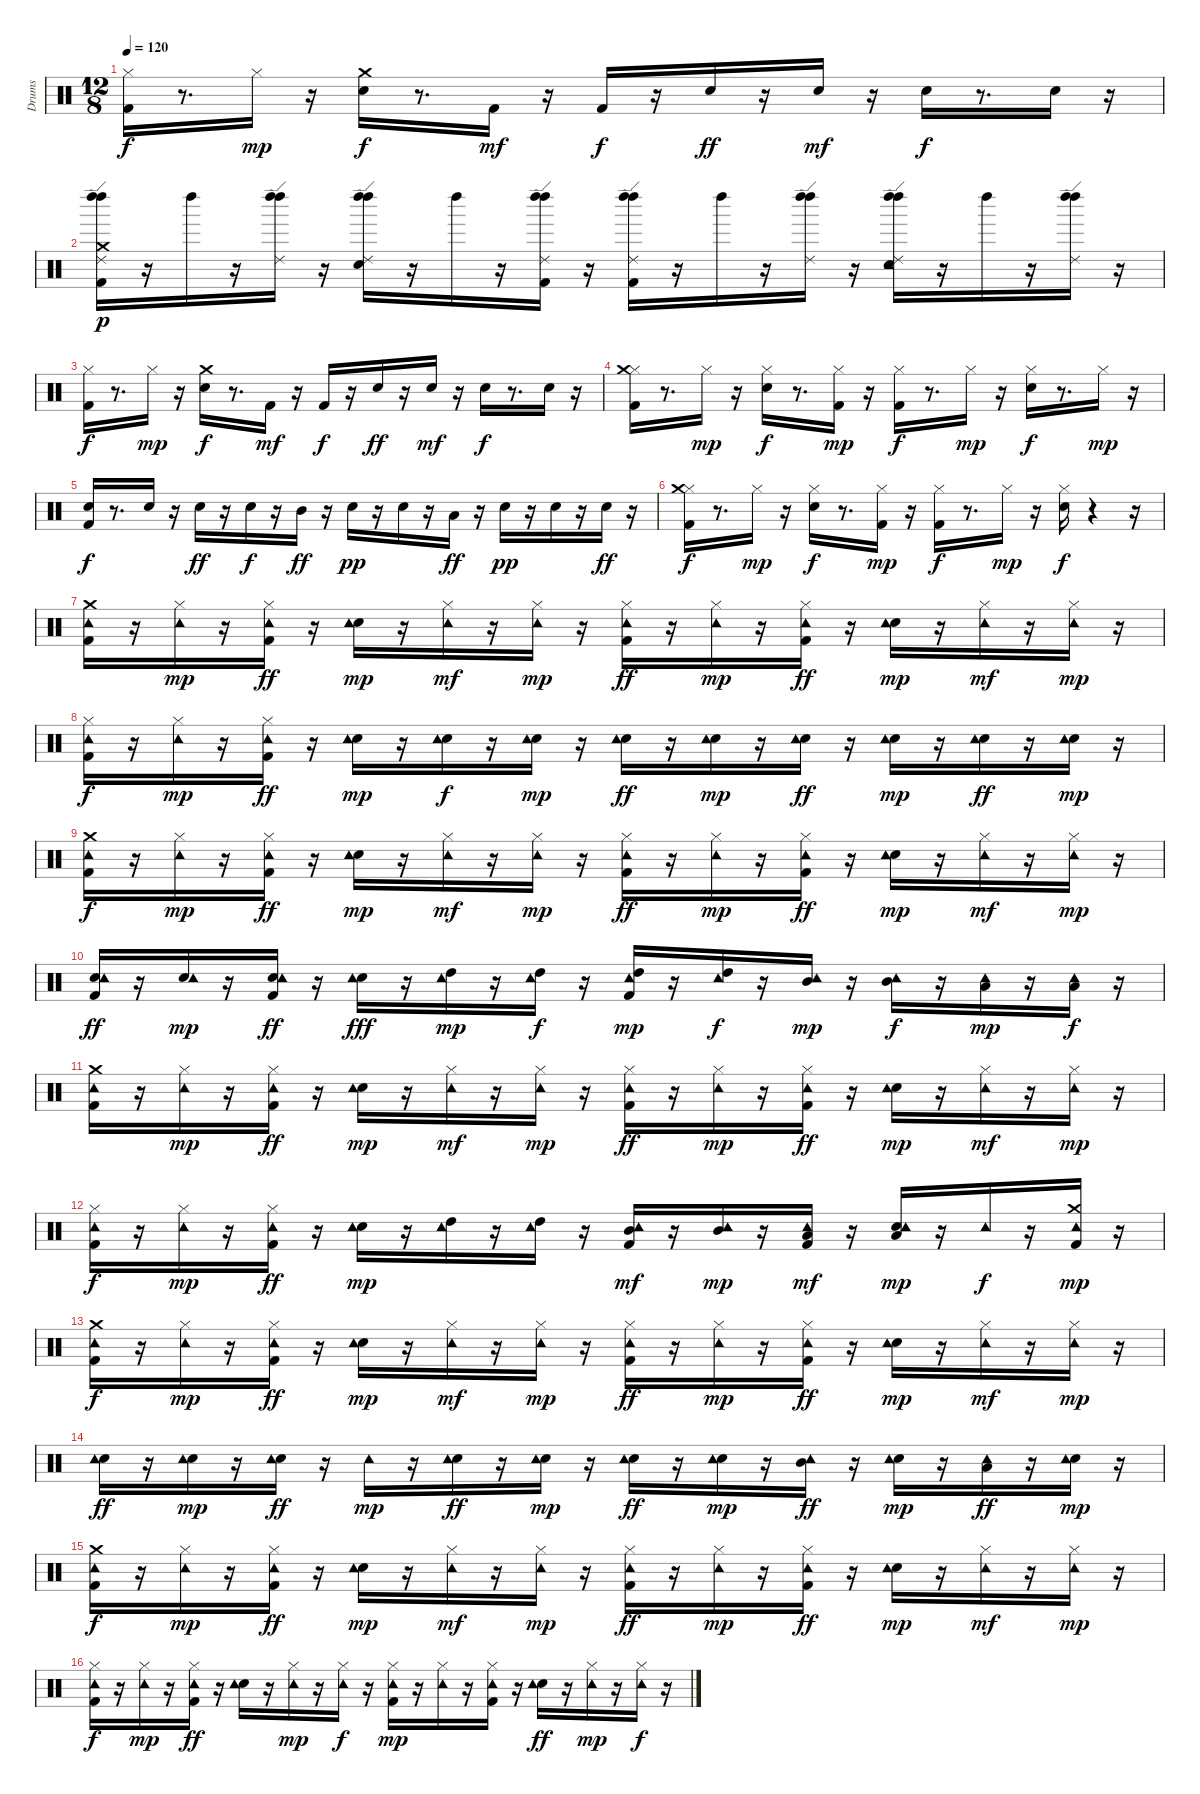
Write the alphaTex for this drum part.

\track ("Drums" "Drums") {instrument percussion}
\staff {score}
\articulation defaults
\ts (12 8)
\tempo 120
\clef neutral
\ks c
("Kick (hit) 2" "Hi-Hat (closed)").16{dy f} r.8{d} "Hi-Hat (closed)".16{dy mp} r.16 ("Snare (hit) 2" "Crash medium (hit)").16{dy f} r.8{d} "Kick (hit) 2".16{dy mf} r.16 "Kick (hit) 2".16{dy f} r.16 "Snare (hit) 2".16{dy ff} r.16 "Snare (hit) 2".16{dy mf} r.16 "Snare (hit) 2".16{dy f} r.8{d} "Snare (hit) 2".16 r.16 |
("Kick (hit) 2" "Ride (edge) 2" "Crash medium (hit)" "Left Maraca (hit)" "Left Maraca (hit)").16{dy p} r.16 "Left Maraca (hit)".16 r.16 ("Ride (edge) 2" "Left Maraca (hit)" "Left Maraca (hit)").16 r.16 ("Snare (hit) 2" "Ride (edge) 2" "Left Maraca (hit)" "Left Maraca (hit)").16 r.16 "Left Maraca (hit)".16 r.16 ("Kick (hit) 2" "Ride (edge) 2" "Left Maraca (hit)" "Left Maraca (hit)").16 r.16 ("Kick (hit) 2" "Ride (edge) 2" "Left Maraca (hit)" "Left Maraca (hit)").16 r.16 "Left Maraca (hit)".16 r.16 ("Ride (edge) 2" "Left Maraca (hit)" "Left Maraca (hit)").16 r.16 ("Snare (hit) 2" "Ride (edge) 2" "Tambourine (hit)" "Left Maraca (hit)" "Left Maraca (hit)").16 r.16 "Left Maraca (hit)".16 r.16 ("Ride (edge) 2" "Left Maraca (hit)" "Left Maraca (hit)").16 r.16 |
("Kick (hit) 2" "Hi-Hat (closed)").16{dy f} r.8{d} "Hi-Hat (closed)".16{dy mp} r.16 ("Snare (hit) 2" "Crash medium (hit)").16{dy f} r.8{d} "Kick (hit) 2".16{dy mf} r.16 "Kick (hit) 2".16{dy f} r.16 "Snare (hit) 2".16{dy ff} r.16 "Snare (hit) 2".16{dy mf} r.16 "Snare (hit) 2".16{dy f} r.8{d} "Snare (hit) 2".16 r.16 |
("Kick (hit) 2" "Hi-Hat (closed)" "Crash medium (hit)").16 r.8{d} "Hi-Hat (closed)".16{dy mp} r.16 ("Snare (hit) 2" "Hi-Hat (closed)").16{dy f} r.8{d} ("Kick (hit) 2" "Hi-Hat (closed)").16{dy mp} r.16 ("Kick (hit) 2" "Hi-Hat (closed)").16{dy f} r.8{d} "Hi-Hat (closed)".16{dy mp} r.16 ("Snare (hit) 2" "Hi-Hat (closed)").16{dy f} r.8{d} "Hi-Hat (closed)".16{dy mp} r.16 |
("Kick (hit) 2" "Snare (hit) 2").16{dy f} r.8{d} "Snare (hit) 2".16 r.16 "Snare (hit) 2".16{dy ff} r.16 "Snare (hit) 2".16{dy f} r.16 "Mid Tom (hit)".16{dy ff} r.16 "Snare (hit) 2".16{dy pp} r.16 "Snare (hit) 2".16 r.16 "Low Floor Tom (hit)".16{dy ff} r.16 "Snare (hit) 2".16{dy pp} r.16 "Snare (hit) 2".16 r.16 "Snare (hit) 2".16{dy ff} r.16 |
("Kick (hit) 2" "Hi-Hat (closed)" "Crash medium (hit)").16{dy f} r.8{d} "Hi-Hat (closed)".16{dy mp} r.16 ("Snare (hit) 2" "Hi-Hat (closed)").16{dy f} r.8{d} ("Kick (hit) 2" "Hi-Hat (closed)").16{dy mp} r.16 ("Kick (hit) 2" "Hi-Hat (closed)").16{dy f} r.8{d} "Hi-Hat (closed)".16{dy mp} r.16 ("Snare (hit) 2" "Hi-Hat (closed)").16{dy f} r.4 r.16 |
("Kick (hit) 2" "Crash medium (hit)" "Tambourine (hit)").16 r.16 ("Hi-Hat (closed)" "Tambourine (hit)").16{dy mp} r.16 ("Kick (hit) 2" "Hi-Hat (closed)" "Tambourine (hit)").16{dy ff} r.16 ("Snare (hit) 2" "Tambourine (hit)").16{dy mp} r.16 ("Hi-Hat (closed)" "Tambourine (hit)").16{dy mf} r.16 ("Hi-Hat (closed)" "Tambourine (hit)").16{dy mp} r.16 ("Kick (hit) 2" "Hi-Hat (closed)" "Tambourine (hit)").16{dy ff} r.16 ("Hi-Hat (closed)" "Tambourine (hit)").16{dy mp} r.16 ("Kick (hit) 2" "Hi-Hat (closed)" "Tambourine (hit)").16{dy ff} r.16 ("Snare (hit) 2" "Tambourine (hit)").16{dy mp} r.16 ("Hi-Hat (closed)" "Tambourine (hit)").16{dy mf} r.16 ("Hi-Hat (closed)" "Tambourine (hit)").16{dy mp} r.16 |
("Kick (hit) 2" "Hi-Hat (closed)" "Tambourine (hit)").16{dy f} r.16 ("Hi-Hat (closed)" "Tambourine (hit)").16{dy mp} r.16 ("Kick (hit) 2" "Hi-Hat (closed)" "Tambourine (hit)").16{dy ff} r.16 ("Snare (hit) 2" "Tambourine (hit)").16{dy mp} r.16 ("Snare (hit) 2" "Tambourine (hit)").16{dy f} r.16 ("Snare (hit) 2" "Tambourine (hit)").16{dy mp} r.16 ("Snare (hit) 2" "Tambourine (hit)").16{dy ff} r.16 ("Snare (hit) 2" "Tambourine (hit)").16{dy mp} r.16 ("Snare (hit) 2" "Tambourine (hit)").16{dy ff} r.16 ("Snare (hit) 2" "Tambourine (hit)").16{dy mp} r.16 ("Snare (hit) 2" "Tambourine (hit)").16{dy ff} r.16 ("Snare (hit) 2" "Tambourine (hit)").16{dy mp} r.16 |
("Kick (hit) 2" "Crash medium (hit)" "Tambourine (hit)").16{dy f} r.16 ("Hi-Hat (closed)" "Tambourine (hit)").16{dy mp} r.16 ("Kick (hit) 2" "Hi-Hat (closed)" "Tambourine (hit)").16{dy ff} r.16 ("Snare (hit) 2" "Tambourine (hit)").16{dy mp} r.16 ("Hi-Hat (closed)" "Tambourine (hit)").16{dy mf} r.16 ("Hi-Hat (closed)" "Tambourine (hit)").16{dy mp} r.16 ("Kick (hit) 2" "Hi-Hat (closed)" "Tambourine (hit)").16{dy ff} r.16 ("Hi-Hat (closed)" "Tambourine (hit)").16{dy mp} r.16 ("Kick (hit) 2" "Hi-Hat (closed)" "Tambourine (hit)").16{dy ff} r.16 ("Snare (hit) 2" "Tambourine (hit)").16{dy mp} r.16 ("Hi-Hat (closed)" "Tambourine (hit)").16{dy mf} r.16 ("Hi-Hat (closed)" "Tambourine (hit)").16{dy mp} r.16 |
("Kick (hit) 2" "Snare (hit) 2" "Tambourine (hit)").16{dy ff} r.16 ("Snare (hit) 2" "Tambourine (hit)").16{dy mp} r.16 ("Kick (hit) 2" "Snare (hit) 2" "Tambourine (hit)").16{dy ff} r.16 ("Snare (hit) 2" "Tambourine (hit)").16{dy fff} r.16 ("High Tom (hit)" "Tambourine (hit)").16{dy mp} r.16 ("High Tom (hit)" "Tambourine (hit)").16{dy f} r.16 ("Kick (hit) 2" "High Tom (hit)" "Tambourine (hit)").16{dy mp} r.16 ("High Tom (hit)" "Tambourine (hit)").16{dy f} r.16 ("Mid Tom (hit)" "Tambourine (hit)").16{dy mp} r.16 ("Mid Tom (hit)" "Tambourine (hit)").16{dy f} r.16 ("Low Floor Tom (hit)" "Tambourine (hit)").16{dy mp} r.16 ("Low Floor Tom (hit)" "Tambourine (hit)").16{dy f} r.16 |
("Kick (hit) 2" "Crash medium (hit)" "Tambourine (hit)").16 r.16 ("Hi-Hat (closed)" "Tambourine (hit)").16{dy mp} r.16 ("Kick (hit) 2" "Hi-Hat (closed)" "Tambourine (hit)").16{dy ff} r.16 ("Snare (hit) 2" "Tambourine (hit)").16{dy mp} r.16 ("Hi-Hat (closed)" "Tambourine (hit)").16{dy mf} r.16 ("Hi-Hat (closed)" "Tambourine (hit)").16{dy mp} r.16 ("Kick (hit) 2" "Hi-Hat (closed)" "Tambourine (hit)").16{dy ff} r.16 ("Hi-Hat (closed)" "Tambourine (hit)").16{dy mp} r.16 ("Kick (hit) 2" "Hi-Hat (closed)" "Tambourine (hit)").16{dy ff} r.16 ("Snare (hit) 2" "Tambourine (hit)").16{dy mp} r.16 ("Hi-Hat (closed)" "Tambourine (hit)").16{dy mf} r.16 ("Hi-Hat (closed)" "Tambourine (hit)").16{dy mp} r.16 |
("Kick (hit) 2" "Hi-Hat (closed)" "Tambourine (hit)").16{dy f} r.16 ("Hi-Hat (closed)" "Tambourine (hit)").16{dy mp} r.16 ("Kick (hit) 2" "Hi-Hat (closed)" "Tambourine (hit)").16{dy ff} r.16 ("Snare (hit) 2" "Tambourine (hit)").16{dy mp} r.16 ("High Tom (hit)" "Tambourine (hit)").16 r.16 ("High Tom (hit)" "Tambourine (hit)").16 r.16 ("Kick (hit) 2" "Mid Tom (hit)" "Tambourine (hit)").16{dy mf} r.16 ("Mid Tom (hit)" "Tambourine (hit)").16{dy mp} r.16 ("Kick (hit) 2" "Low Floor Tom (hit)" "Tambourine (hit)").16{dy mf} r.16 ("Snare (hit) 2" "Low Floor Tom (hit)" "Tambourine (hit)").16{dy mp} r.16 "Tambourine (hit)".16{dy f} r.16 ("Kick (hit) 2" "Crash medium (hit)" "Tambourine (hit)").16{dy mp} r.16 |
("Kick (hit) 2" "Crash medium (hit)" "Tambourine (hit)").16{dy f} r.16 ("Hi-Hat (closed)" "Tambourine (hit)").16{dy mp} r.16 ("Kick (hit) 2" "Hi-Hat (closed)" "Tambourine (hit)").16{dy ff} r.16 ("Snare (hit) 2" "Tambourine (hit)").16{dy mp} r.16 ("Hi-Hat (closed)" "Tambourine (hit)").16{dy mf} r.16 ("Hi-Hat (closed)" "Tambourine (hit)").16{dy mp} r.16 ("Kick (hit) 2" "Hi-Hat (closed)" "Tambourine (hit)").16{dy ff} r.16 ("Hi-Hat (closed)" "Tambourine (hit)").16{dy mp} r.16 ("Kick (hit) 2" "Hi-Hat (closed)" "Tambourine (hit)").16{dy ff} r.16 ("Snare (hit) 2" "Tambourine (hit)").16{dy mp} r.16 ("Hi-Hat (closed)" "Tambourine (hit)").16{dy mf} r.16 ("Hi-Hat (closed)" "Tambourine (hit)").16{dy mp} r.16 |
("Snare (hit) 2" "Tambourine (hit)").16{dy ff} r.16 ("Snare (hit) 2" "Tambourine (hit)").16{dy mp} r.16 ("Snare (hit) 2" "Tambourine (hit)").16{dy ff} r.16 "Tambourine (hit)".16{dy mp} r.16 ("Snare (hit) 2" "Tambourine (hit)").16{dy ff} r.16 ("Snare (hit) 2" "Tambourine (hit)").16{dy mp} r.16 ("Snare (hit) 2" "Tambourine (hit)").16{dy ff} r.16 ("Snare (hit) 2" "Tambourine (hit)").16{dy mp} r.16 ("Mid Tom (hit)" "Tambourine (hit)").16{dy ff} r.16 ("Snare (hit) 2" "Tambourine (hit)").16{dy mp} r.16 ("Low Floor Tom (hit)" "Tambourine (hit)").16{dy ff} r.16 ("Snare (hit) 2" "Tambourine (hit)").16{dy mp} r.16 |
("Kick (hit) 2" "Crash medium (hit)" "Tambourine (hit)").16{dy f} r.16 ("Hi-Hat (closed)" "Tambourine (hit)").16{dy mp} r.16 ("Kick (hit) 2" "Hi-Hat (closed)" "Tambourine (hit)").16{dy ff} r.16 ("Snare (hit) 2" "Tambourine (hit)").16{dy mp} r.16 ("Hi-Hat (closed)" "Tambourine (hit)").16{dy mf} r.16 ("Hi-Hat (closed)" "Tambourine (hit)").16{dy mp} r.16 ("Kick (hit) 2" "Hi-Hat (closed)" "Tambourine (hit)").16{dy ff} r.16 ("Hi-Hat (closed)" "Tambourine (hit)").16{dy mp} r.16 ("Kick (hit) 2" "Hi-Hat (closed)" "Tambourine (hit)").16{dy ff} r.16 ("Snare (hit) 2" "Tambourine (hit)").16{dy mp} r.16 ("Hi-Hat (closed)" "Tambourine (hit)").16{dy mf} r.16 ("Hi-Hat (closed)" "Tambourine (hit)").16{dy mp} r.16 |
("Kick (hit) 2" "Hi-Hat (closed)" "Tambourine (hit)").16{dy f} r.16 ("Hi-Hat (closed)" "Tambourine (hit)").16{dy mp} r.16 ("Kick (hit) 2" "Hi-Hat (closed)" "Tambourine (hit)").16{dy ff} r.16 ("Snare (hit) 2" "Tambourine (hit)").16 r.16 ("Hi-Hat (closed)" "Tambourine (hit)").16{dy mp} r.16 ("Hi-Hat (closed)" "Tambourine (hit)").16{dy f} r.16 ("Kick (hit) 2" "Hi-Hat (closed)" "Tambourine (hit)").16{dy mp} r.16 ("Hi-Hat (closed)" "Tambourine (hit)").16 r.16 ("Kick (hit) 2" "Hi-Hat (closed)" "Tambourine (hit)").16 r.16 ("Snare (hit) 2" "Tambourine (hit)").16{dy ff} r.16 ("Hi-Hat (closed)" "Tambourine (hit)").16{dy mp} r.16 ("Hi-Hat (closed)" "Tambourine (hit)").16{dy f} r.16
